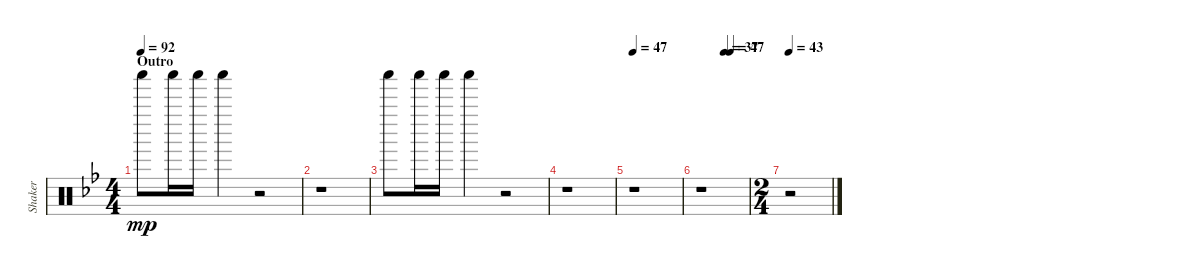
\track ("Shaker" "Shaker") {instrument percussion}
\staff {score}
\articulation defaults
\ts (4 4)
\section ("" "Outro")
\tempo 92
\clef neutral
\ks bb "Shaker (hit)".8{dy mp} "Shaker (hit)".16 "Shaker (hit)".16 "Shaker (hit)".4
r.2 |
r.1 |
"Shaker (hit)".8 "Shaker (hit)".16 "Shaker (hit)".16 "Shaker (hit)".4 r.2 |
r.1 |
\tempo 47
r.1 |
\tempo (37 0.5)
\tempo (47 0.625)
r.1 |
\ts (2 4)
\tempo 43
r.2
